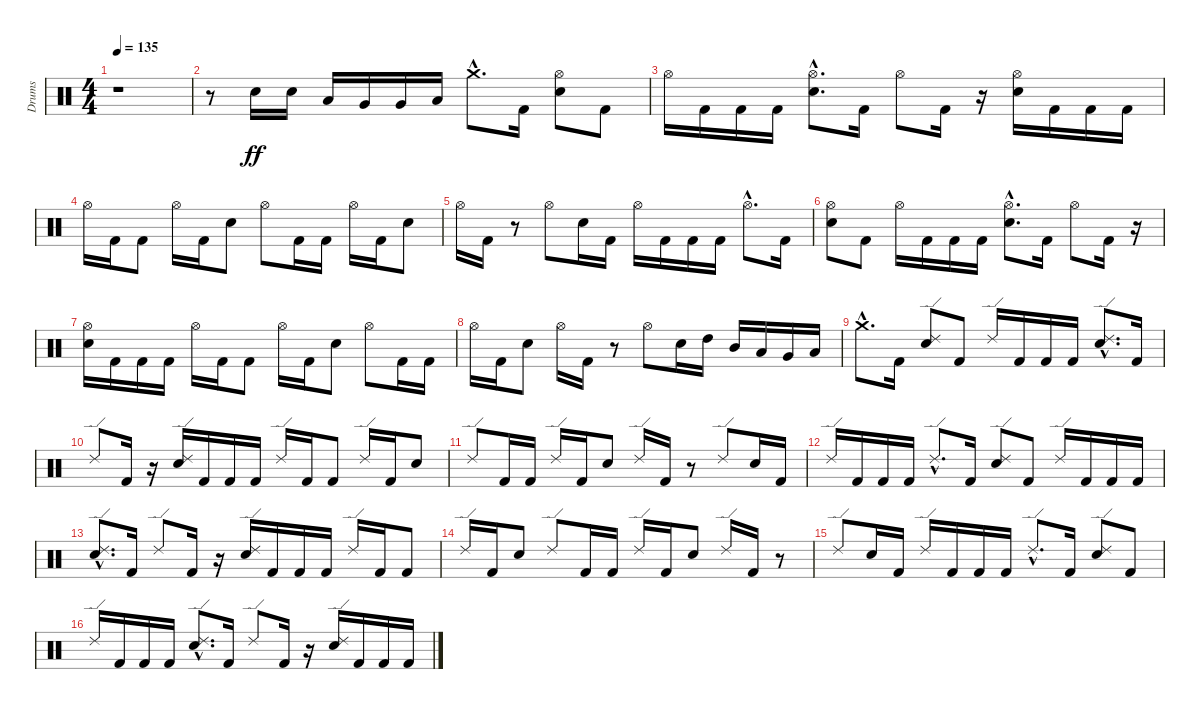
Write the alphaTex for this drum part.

\track ("Drums" "Drums") {instrument percussion}
\staff {score}
\articulation defaults
\ts (4 4)
\tempo 135
\clef neutral
\ks c
r.1{dy f} |
r.8 "Electric Snare (hit)".16{dy ff} "Electric Snare (hit)".16 "Low Tom (hit)".16 "Very Low Tom (hit)".16 "Very Low Tom (hit)".16 "Low Floor Tom (hit)".16 "Crash medium (hit)"{hac}.8{d} "Kick (hit) 2".16 ("Electric Snare (hit)" "Hi-Hat (open)").8 "Kick (hit) 2".8 |
"Hi-Hat (open)".16 "Kick (hit) 2".16 "Kick (hit) 2".16 "Kick (hit) 2".16 ("Electric Snare (hit)"{hac} "Hi-Hat (open)"{hac}).8{d} "Kick (hit) 2".16 "Hi-Hat (open)".8 "Kick (hit) 2".16 r.16 ("Electric Snare (hit)" "Hi-Hat (open)").16 "Kick (hit) 2".16 "Kick (hit) 2".16 "Kick (hit) 2".16 |
"Hi-Hat (open)".16 "Kick (hit) 2".16 "Kick (hit) 2".8 "Hi-Hat (open)".16 "Kick (hit) 2".16 "Electric Snare (hit)".8 "Hi-Hat (open)".8 "Kick (hit) 2".16 "Kick (hit) 2".16 "Hi-Hat (open)".16 "Kick (hit) 2".16 "Electric Snare (hit)".8 |
"Hi-Hat (open)".16 "Kick (hit) 2".16 r.8 "Hi-Hat (open)".8 "Electric Snare (hit)".16 "Kick (hit) 2".16 "Hi-Hat (open)".16 "Kick (hit) 2".16 "Kick (hit) 2".16 "Kick (hit) 2".16 "Hi-Hat (open)"{hac}.8{d} "Kick (hit) 2".16 |
("Electric Snare (hit)" "Hi-Hat (open)").8 "Kick (hit) 2".8 "Hi-Hat (open)".16 "Kick (hit) 2".16 "Kick (hit) 2".16 "Kick (hit) 2".16 ("Electric Snare (hit)"{hac} "Hi-Hat (open)"{hac}).8{d} "Kick (hit) 2".16 "Hi-Hat (open)".8 "Kick (hit) 2".16 r.16 |
("Electric Snare (hit)" "Hi-Hat (open)").16 "Kick (hit) 2".16 "Kick (hit) 2".16 "Kick (hit) 2".16 "Hi-Hat (open)".16 "Kick (hit) 2".16 "Kick (hit) 2".8 "Hi-Hat (open)".16 "Kick (hit) 2".16 "Electric Snare (hit)".8 "Hi-Hat (open)".8 "Kick (hit) 2".16 "Kick (hit) 2".16 |
"Hi-Hat (open)".16 "Kick (hit) 2".16 "Electric Snare (hit)".8 "Hi-Hat (open)".16 "Kick (hit) 2".16 r.8 "Hi-Hat (open)".8 "Electric Snare (hit)".16 "High Tom (hit)".16 "Mid Tom (hit)".16 "Low Tom (hit)".16 "Very Low Tom (hit)".16 "Low Floor Tom (hit)".16 |
"Crash medium (hit)"{hac}.8{d} "Kick (hit) 2".16 ("Electric Snare (hit)" "Ride (edge) 2").8 "Kick (hit) 2".8 "Ride (edge) 2".16 "Kick (hit) 2".16 "Kick (hit) 2".16 "Kick (hit) 2".16 ("Electric Snare (hit)"{hac} "Ride (edge) 2"{hac}).8{d} "Kick (hit) 2".16 |
"Ride (edge) 2".8 "Kick (hit) 2".16 r.16 ("Electric Snare (hit)" "Ride (edge) 2").16 "Kick (hit) 2".16 "Kick (hit) 2".16 "Kick (hit) 2".16 "Ride (edge) 2".16 "Kick (hit) 2".16 "Kick (hit) 2".8 "Ride (edge) 2".16 "Kick (hit) 2".16 "Electric Snare (hit)".8 |
"Ride (edge) 2".8 "Kick (hit) 2".16 "Kick (hit) 2".16 "Ride (edge) 2".16 "Kick (hit) 2".16 "Electric Snare (hit)".8 "Ride (edge) 2".16 "Kick (hit) 2".16 r.8 "Ride (edge) 2".8 "Electric Snare (hit)".16 "Kick (hit) 2".16 |
"Ride (edge) 2".16 "Kick (hit) 2".16 "Kick (hit) 2".16 "Kick (hit) 2".16 "Ride (edge) 2"{hac}.8{d} "Kick (hit) 2".16 ("Electric Snare (hit)" "Ride (edge) 2").8 "Kick (hit) 2".8 "Ride (edge) 2".16 "Kick (hit) 2".16 "Kick (hit) 2".16 "Kick (hit) 2".16 |
("Electric Snare (hit)"{hac} "Ride (edge) 2"{hac}).8{d} "Kick (hit) 2".16 "Ride (edge) 2".8 "Kick (hit) 2".16 r.16 ("Electric Snare (hit)" "Ride (edge) 2").16 "Kick (hit) 2".16 "Kick (hit) 2".16 "Kick (hit) 2".16 "Ride (edge) 2".16 "Kick (hit) 2".16 "Kick (hit) 2".8 |
"Ride (edge) 2".16 "Kick (hit) 2".16 "Electric Snare (hit)".8 "Ride (edge) 2".8 "Kick (hit) 2".16 "Kick (hit) 2".16 "Ride (edge) 2".16 "Kick (hit) 2".16 "Electric Snare (hit)".8 "Ride (edge) 2".16 "Kick (hit) 2".16 r.8 |
"Ride (edge) 2".8 "Electric Snare (hit)".16 "Kick (hit) 2".16 "Ride (edge) 2".16 "Kick (hit) 2".16 "Kick (hit) 2".16 "Kick (hit) 2".16 "Ride (edge) 2"{hac}.8{d} "Kick (hit) 2".16 ("Electric Snare (hit)" "Ride (edge) 2").8 "Kick (hit) 2".8 |
"Ride (edge) 2".16 "Kick (hit) 2".16 "Kick (hit) 2".16 "Kick (hit) 2".16 ("Electric Snare (hit)"{hac} "Ride (edge) 2"{hac}).8{d} "Kick (hit) 2".16 "Ride (edge) 2".8 "Kick (hit) 2".16 r.16 ("Electric Snare (hit)" "Ride (edge) 2").16 "Kick (hit) 2".16 "Kick (hit) 2".16 "Kick (hit) 2".16
